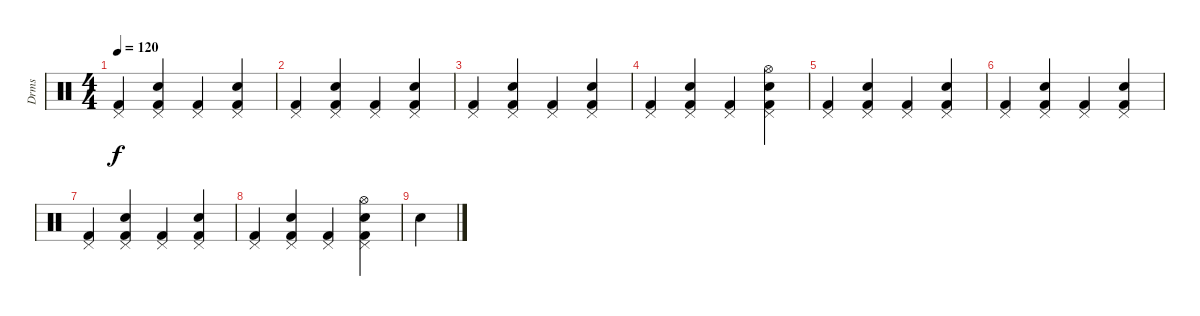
\track ("Drms" "Drms") {instrument percussion}
\staff {score}
\articulation defaults
\ts (4 4)
\tempo 120
\clef neutral
\ks c
("Kick (hit) 2" "Pedal Hi-Hat (hit)").4{dy f} ("Kick (hit) 2" "Snare (hit) 2" "Pedal Hi-Hat (hit)").4 ("Kick (hit) 2" "Pedal Hi-Hat (hit)").4 ("Kick (hit) 2" "Snare (hit) 2" "Pedal Hi-Hat (hit)").4 |
("Kick (hit) 2" "Pedal Hi-Hat (hit)").4 ("Kick (hit) 2" "Snare (hit) 2" "Pedal Hi-Hat (hit)").4 ("Kick (hit) 2" "Pedal Hi-Hat (hit)").4 ("Kick (hit) 2" "Snare (hit) 2" "Pedal Hi-Hat (hit)").4 |
("Kick (hit) 2" "Pedal Hi-Hat (hit)").4 ("Kick (hit) 2" "Snare (hit) 2" "Pedal Hi-Hat (hit)").4 ("Kick (hit) 2" "Pedal Hi-Hat (hit)").4 ("Kick (hit) 2" "Snare (hit) 2" "Pedal Hi-Hat (hit)").4 |
("Kick (hit) 2" "Pedal Hi-Hat (hit)").4 ("Kick (hit) 2" "Snare (hit) 2" "Pedal Hi-Hat (hit)").4 ("Kick (hit) 2" "Pedal Hi-Hat (hit)").4 ("Kick (hit) 2" "Snare (hit) 2" "Pedal Hi-Hat (hit)" "Hi-Hat (open)").4 |
("Kick (hit) 2" "Pedal Hi-Hat (hit)").4 ("Kick (hit) 2" "Snare (hit) 2" "Pedal Hi-Hat (hit)").4 ("Kick (hit) 2" "Pedal Hi-Hat (hit)").4 ("Kick (hit) 2" "Snare (hit) 2" "Pedal Hi-Hat (hit)").4 |
("Kick (hit) 2" "Pedal Hi-Hat (hit)").4 ("Kick (hit) 2" "Snare (hit) 2" "Pedal Hi-Hat (hit)").4 ("Kick (hit) 2" "Pedal Hi-Hat (hit)").4 ("Kick (hit) 2" "Snare (hit) 2" "Pedal Hi-Hat (hit)").4 |
("Kick (hit) 2" "Pedal Hi-Hat (hit)").4 ("Kick (hit) 2" "Snare (hit) 2" "Pedal Hi-Hat (hit)").4 ("Kick (hit) 2" "Pedal Hi-Hat (hit)").4 ("Kick (hit) 2" "Snare (hit) 2" "Pedal Hi-Hat (hit)").4 |
("Kick (hit) 2" "Pedal Hi-Hat (hit)").4 ("Kick (hit) 2" "Snare (hit) 2" "Pedal Hi-Hat (hit)").4 ("Kick (hit) 2" "Pedal Hi-Hat (hit)").4 ("Kick (hit) 2" "Snare (hit) 2" "Pedal Hi-Hat (hit)" "Hi-Hat (open)").4 |
"Electric Snare (hit)".4
